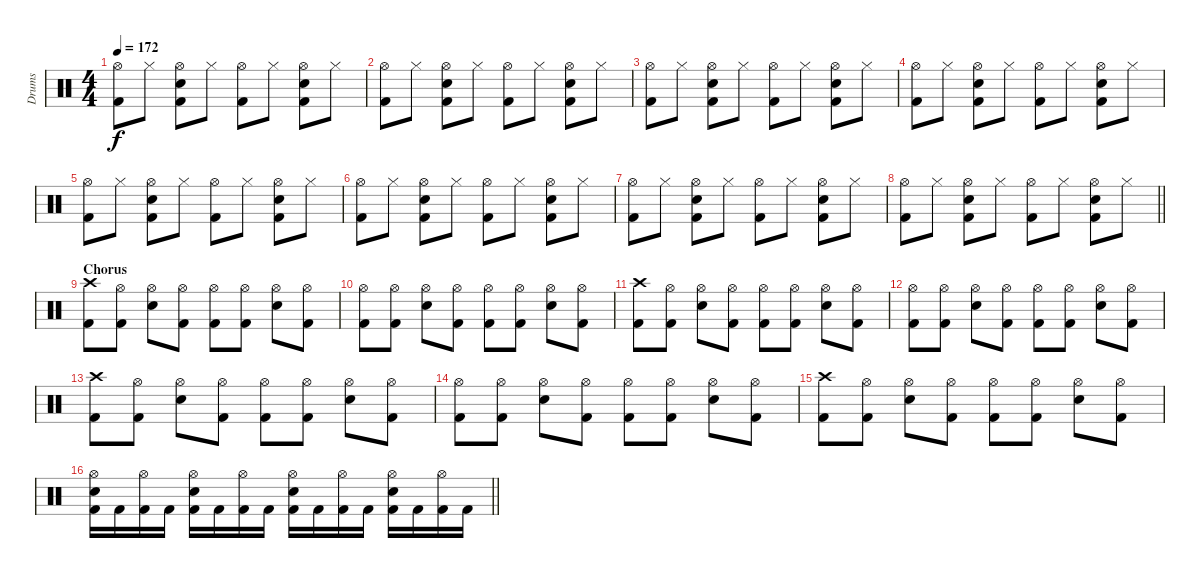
\track ("Drums" "Drums") {instrument percussion}
\staff {score}
\articulation defaults
\ts (4 4)
\tempo 172
\clef neutral
\ks c
("Kick (hit) 2" "Hi-Hat (open)").8{dy f} "Hi-Hat (closed)".8 ("Electric Snare (hit)" "Kick (hit) 2" "Hi-Hat (open)").8 "Hi-Hat (closed)".8 ("Hi-Hat (open)" "Kick (hit) 2").8 "Hi-Hat (closed)".8 ("Electric Snare (hit)" "Kick (hit) 2" "Hi-Hat (open)").8 "Hi-Hat (closed)".8 |
("Kick (hit) 2" "Hi-Hat (open)").8 "Hi-Hat (closed)".8 ("Electric Snare (hit)" "Kick (hit) 2" "Hi-Hat (open)").8 "Hi-Hat (closed)".8 ("Hi-Hat (open)" "Kick (hit) 2").8 "Hi-Hat (closed)".8 ("Electric Snare (hit)" "Kick (hit) 2" "Hi-Hat (open)").8 "Hi-Hat (closed)".8 |
("Kick (hit) 2" "Hi-Hat (open)").8 "Hi-Hat (closed)".8 ("Electric Snare (hit)" "Kick (hit) 2" "Hi-Hat (open)").8 "Hi-Hat (closed)".8 ("Hi-Hat (open)" "Kick (hit) 2").8 "Hi-Hat (closed)".8 ("Electric Snare (hit)" "Kick (hit) 2" "Hi-Hat (open)").8 "Hi-Hat (closed)".8 |
("Kick (hit) 2" "Hi-Hat (open)").8 "Hi-Hat (closed)".8 ("Electric Snare (hit)" "Kick (hit) 2" "Hi-Hat (open)").8 "Hi-Hat (closed)".8 ("Hi-Hat (open)" "Kick (hit) 2").8 "Hi-Hat (closed)".8 ("Electric Snare (hit)" "Kick (hit) 2" "Hi-Hat (open)").8 "Hi-Hat (closed)".8 |
("Kick (hit) 2" "Hi-Hat (open)").8 "Hi-Hat (closed)".8 ("Electric Snare (hit)" "Kick (hit) 2" "Hi-Hat (open)").8 "Hi-Hat (closed)".8 ("Hi-Hat (open)" "Kick (hit) 2").8 "Hi-Hat (closed)".8 ("Electric Snare (hit)" "Kick (hit) 2" "Hi-Hat (open)").8 "Hi-Hat (closed)".8 |
("Kick (hit) 2" "Hi-Hat (open)").8 "Hi-Hat (closed)".8 ("Electric Snare (hit)" "Kick (hit) 2" "Hi-Hat (open)").8 "Hi-Hat (closed)".8 ("Hi-Hat (open)" "Kick (hit) 2").8 "Hi-Hat (closed)".8 ("Electric Snare (hit)" "Kick (hit) 2" "Hi-Hat (open)").8 "Hi-Hat (closed)".8 |
("Kick (hit) 2" "Hi-Hat (open)").8 "Hi-Hat (closed)".8 ("Electric Snare (hit)" "Kick (hit) 2" "Hi-Hat (open)").8 "Hi-Hat (closed)".8 ("Hi-Hat (open)" "Kick (hit) 2").8 "Hi-Hat (closed)".8 ("Electric Snare (hit)" "Kick (hit) 2" "Hi-Hat (open)").8 "Hi-Hat (closed)".8 |
\barLineRight lightlight
("Kick (hit) 2" "Hi-Hat (open)").8 "Hi-Hat (closed)".8 ("Electric Snare (hit)" "Kick (hit) 2" "Hi-Hat (open)").8 "Hi-Hat (closed)".8 ("Hi-Hat (open)" "Kick (hit) 2").8 "Hi-Hat (closed)".8 ("Electric Snare (hit)" "Kick (hit) 2" "Hi-Hat (open)").8 "Hi-Hat (closed)".8 |
\section ("" "Chorus")
("Kick (hit) 2" "Crash high (hit)").8 ("Kick (hit) 2" "Hi-Hat (open)").8 ("Electric Snare (hit)" "Hi-Hat (open)").8 ("Kick (hit) 2" "Hi-Hat (open)").8 ("Kick (hit) 2" "Hi-Hat (open)").8 ("Kick (hit) 2" "Hi-Hat (open)").8 ("Electric Snare (hit)" "Hi-Hat (open)").8 ("Kick (hit) 2" "Hi-Hat (open)").8 |
("Kick (hit) 2" "Hi-Hat (open)").8 ("Kick (hit) 2" "Hi-Hat (open)").8 ("Electric Snare (hit)" "Hi-Hat (open)").8 ("Kick (hit) 2" "Hi-Hat (open)").8 ("Kick (hit) 2" "Hi-Hat (open)").8 ("Kick (hit) 2" "Hi-Hat (open)").8 ("Electric Snare (hit)" "Hi-Hat (open)").8 ("Kick (hit) 2" "Hi-Hat (open)").8 |
("Kick (hit) 2" "Crash high (hit)").8 ("Kick (hit) 2" "Hi-Hat (open)").8 ("Electric Snare (hit)" "Hi-Hat (open)").8 ("Kick (hit) 2" "Hi-Hat (open)").8 ("Kick (hit) 2" "Hi-Hat (open)").8 ("Kick (hit) 2" "Hi-Hat (open)").8 ("Electric Snare (hit)" "Hi-Hat (open)").8 ("Kick (hit) 2" "Hi-Hat (open)").8 |
("Kick (hit) 2" "Hi-Hat (open)").8 ("Kick (hit) 2" "Hi-Hat (open)").8 ("Electric Snare (hit)" "Hi-Hat (open)").8 ("Kick (hit) 2" "Hi-Hat (open)").8 ("Kick (hit) 2" "Hi-Hat (open)").8 ("Kick (hit) 2" "Hi-Hat (open)").8 ("Electric Snare (hit)" "Hi-Hat (open)").8 ("Kick (hit) 2" "Hi-Hat (open)").8 |
("Kick (hit) 2" "Crash high (hit)").8 ("Kick (hit) 2" "Hi-Hat (open)").8 ("Electric Snare (hit)" "Hi-Hat (open)").8 ("Kick (hit) 2" "Hi-Hat (open)").8 ("Kick (hit) 2" "Hi-Hat (open)").8 ("Kick (hit) 2" "Hi-Hat (open)").8 ("Electric Snare (hit)" "Hi-Hat (open)").8 ("Kick (hit) 2" "Hi-Hat (open)").8 |
("Kick (hit) 2" "Hi-Hat (open)").8 ("Kick (hit) 2" "Hi-Hat (open)").8 ("Electric Snare (hit)" "Hi-Hat (open)").8 ("Kick (hit) 2" "Hi-Hat (open)").8 ("Kick (hit) 2" "Hi-Hat (open)").8 ("Kick (hit) 2" "Hi-Hat (open)").8 ("Electric Snare (hit)" "Hi-Hat (open)").8 ("Kick (hit) 2" "Hi-Hat (open)").8 |
("Kick (hit) 2" "Crash high (hit)").8 ("Kick (hit) 2" "Hi-Hat (open)").8 ("Electric Snare (hit)" "Hi-Hat (open)").8 ("Kick (hit) 2" "Hi-Hat (open)").8 ("Kick (hit) 2" "Hi-Hat (open)").8 ("Kick (hit) 2" "Hi-Hat (open)").8 ("Electric Snare (hit)" "Hi-Hat (open)").8 ("Kick (hit) 2" "Hi-Hat (open)").8 |
\barLineRight lightlight
("Kick (hit) 2" "Electric Snare (hit)" "Hi-Hat (open)").16 "Kick (hit) 2".16 ("Kick (hit) 2" "Hi-Hat (open)").16 "Kick (hit) 2".16 ("Kick (hit) 2" "Electric Snare (hit)" "Hi-Hat (open)").16 "Kick (hit) 2".16 ("Kick (hit) 2" "Hi-Hat (open)").16 "Kick (hit) 2".16 ("Kick (hit) 2" "Electric Snare (hit)" "Hi-Hat (open)").16 "Kick (hit) 2".16 ("Kick (hit) 2" "Hi-Hat (open)").16 "Kick (hit) 2".16 ("Kick (hit) 2" "Electric Snare (hit)" "Hi-Hat (open)").16 "Kick (hit) 2".16 ("Kick (hit) 2" "Hi-Hat (open)").16 "Kick (hit) 2".16
